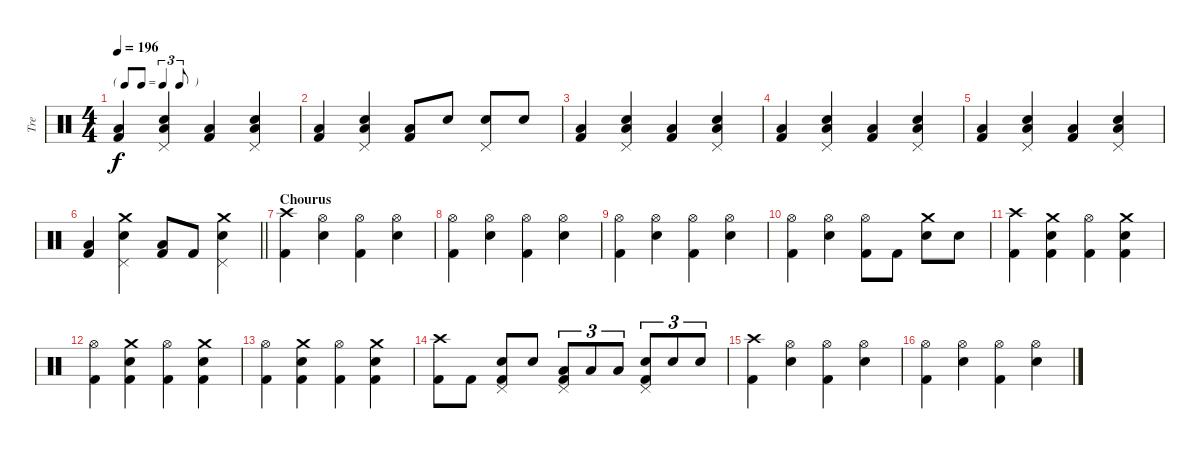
\track ("Tre" "Tre") {instrument percussion}
\staff {score}
\articulation defaults
\ts (4 4)
\tf triplet8th
\tempo 196
\clef neutral
\ks c
("Low Floor Tom (hit)" "Kick (hit) 2").4{dy f} ("Snare (hit) 2" "Low Floor Tom (hit)" "Pedal Hi-Hat (hit)").4 ("Low Floor Tom (hit)" "Kick (hit) 2").4 ("Snare (hit) 2" "Low Floor Tom (hit)" "Pedal Hi-Hat (hit)").4 |
("Low Floor Tom (hit)" "Kick (hit) 2").4 ("Snare (hit) 2" "Low Floor Tom (hit)" "Pedal Hi-Hat (hit)").4 ("Low Floor Tom (hit)" "Kick (hit) 2").8 "Snare (hit) 2".8 ("Snare (hit) 2" "Pedal Hi-Hat (hit)").8 "Snare (hit) 2".8 |
("Low Floor Tom (hit)" "Kick (hit) 2").4 ("Snare (hit) 2" "Low Floor Tom (hit)" "Pedal Hi-Hat (hit)").4 ("Low Floor Tom (hit)" "Kick (hit) 2").4 ("Snare (hit) 2" "Low Floor Tom (hit)" "Pedal Hi-Hat (hit)").4 |
("Low Floor Tom (hit)" "Kick (hit) 2").4 ("Snare (hit) 2" "Low Floor Tom (hit)" "Pedal Hi-Hat (hit)").4 ("Low Floor Tom (hit)" "Kick (hit) 2").4 ("Snare (hit) 2" "Low Floor Tom (hit)" "Pedal Hi-Hat (hit)").4 |
("Low Floor Tom (hit)" "Kick (hit) 2").4 ("Snare (hit) 2" "Low Floor Tom (hit)" "Pedal Hi-Hat (hit)").4 ("Low Floor Tom (hit)" "Kick (hit) 2").4 ("Snare (hit) 2" "Low Floor Tom (hit)" "Pedal Hi-Hat (hit)").4 |
\barLineRight lightlight
("Low Floor Tom (hit)" "Kick (hit) 2").4 ("Crash medium (hit)" "Snare (hit) 2" "Pedal Hi-Hat (hit)").4 ("Low Floor Tom (hit)" "Kick (hit) 2").8 "Kick (hit) 2".8 ("Crash medium (hit)" "Snare (hit) 2" "Pedal Hi-Hat (hit)").4 |
\section ("" "Chourus")
("Crash high (hit)" "Kick (hit) 2").4 ("Hi-Hat (open)" "Snare (hit) 2").4 ("Hi-Hat (open)" "Kick (hit) 2").4 ("Hi-Hat (open)" "Snare (hit) 2").4 |
("Hi-Hat (open)" "Kick (hit) 2").4 ("Hi-Hat (open)" "Snare (hit) 2").4 ("Hi-Hat (open)" "Kick (hit) 2").4 ("Hi-Hat (open)" "Snare (hit) 2").4 |
("Hi-Hat (open)" "Kick (hit) 2").4 ("Hi-Hat (open)" "Snare (hit) 2").4 ("Hi-Hat (open)" "Kick (hit) 2").4 ("Hi-Hat (open)" "Snare (hit) 2").4 |
("Hi-Hat (open)" "Kick (hit) 2").4 ("Hi-Hat (open)" "Snare (hit) 2").4 ("Hi-Hat (open)" "Kick (hit) 2").8 "Kick (hit) 2".8 ("Crash medium (hit)" "Snare (hit) 2").8 "Snare (hit) 2".8 |
("Crash high (hit)" "Kick (hit) 2").4 ("Crash medium (hit)" "Snare (hit) 2" "Kick (hit) 2").4 ("Hi-Hat (open)" "Kick (hit) 2").4 ("Crash medium (hit)" "Snare (hit) 2" "Kick (hit) 2").4 |
("Hi-Hat (open)" "Kick (hit) 2").4 ("Crash medium (hit)" "Snare (hit) 2" "Kick (hit) 2").4 ("Hi-Hat (open)" "Kick (hit) 2").4 ("Crash medium (hit)" "Snare (hit) 2" "Kick (hit) 2").4 |
("Hi-Hat (open)" "Kick (hit) 2").4 ("Crash medium (hit)" "Snare (hit) 2" "Kick (hit) 2").4 ("Hi-Hat (open)" "Kick (hit) 2").4 ("Crash medium (hit)" "Snare (hit) 2" "Kick (hit) 2").4 |
("Crash high (hit)" "Kick (hit) 2").8 "Kick (hit) 2".8 ("Snare (hit) 2" "Pedal Hi-Hat (hit)" "Kick (hit) 2").8 "Snare (hit) 2".8 ("Low Tom (hit)" "Pedal Hi-Hat (hit)" "Kick (hit) 2").8{tu (3 2)} "Low Tom (hit)".8{tu (3 2)} "Low Tom (hit)".8{tu (3 2)} ("Snare (hit) 2" "Pedal Hi-Hat (hit)" "Kick (hit) 2").8{tu (3 2)} "Snare (hit) 2".8{tu (3 2)} "Snare (hit) 2".8{tu (3 2)} |
("Crash high (hit)" "Kick (hit) 2").4 ("Hi-Hat (open)" "Snare (hit) 2").4 ("Hi-Hat (open)" "Kick (hit) 2").4 ("Hi-Hat (open)" "Snare (hit) 2").4 |
("Hi-Hat (open)" "Kick (hit) 2").4 ("Hi-Hat (open)" "Snare (hit) 2").4 ("Hi-Hat (open)" "Kick (hit) 2").4 ("Hi-Hat (open)" "Snare (hit) 2").4
